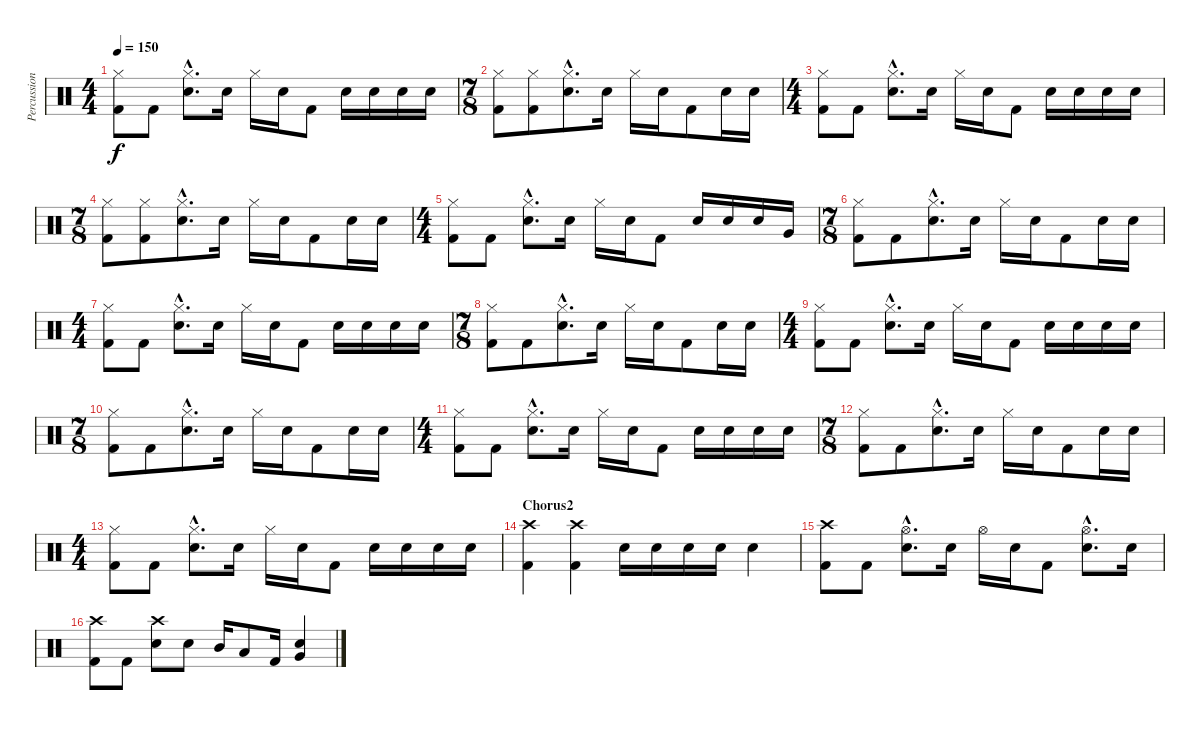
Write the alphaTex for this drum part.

\track ("Percussion" "Percussion") {instrument percussion}
\staff {score}
\articulation defaults
\ts (4 4)
\tempo 150
\clef neutral
\ks c
("Hi-Hat (closed)" "Kick (hit) 2").8{dy f} "Kick (hit) 2".8 ("Hi-Hat (closed)"{hac} "Electric Snare (hit)"{hac}).8{d} "Electric Snare (hit)".16 "Hi-Hat (closed)".16 "Electric Snare (hit)".16 "Kick (hit) 2".8 "Electric Snare (hit)".16 "Electric Snare (hit)".16 "Electric Snare (hit)".16 "Electric Snare (hit)".16 |
\ts (7 8)
("Hi-Hat (closed)" "Kick (hit) 2").8 ("Hi-Hat (closed)" "Kick (hit) 2").8 ("Hi-Hat (closed)"{hac} "Electric Snare (hit)"{hac}).8{d} "Electric Snare (hit)".16 "Hi-Hat (closed)".16 "Electric Snare (hit)".16 "Kick (hit) 2".8 "Electric Snare (hit)".16 "Electric Snare (hit)".16 |
\ts (4 4)
("Hi-Hat (closed)" "Kick (hit) 2").8 "Kick (hit) 2".8 ("Hi-Hat (closed)"{hac} "Electric Snare (hit)"{hac}).8{d} "Electric Snare (hit)".16 "Hi-Hat (closed)".16 "Electric Snare (hit)".16 "Kick (hit) 2".8 "Electric Snare (hit)".16 "Electric Snare (hit)".16 "Electric Snare (hit)".16 "Electric Snare (hit)".16 |
\ts (7 8)
("Hi-Hat (closed)" "Kick (hit) 2").8 ("Hi-Hat (closed)" "Kick (hit) 2").8 ("Hi-Hat (closed)"{hac} "Electric Snare (hit)"{hac}).8{d} "Electric Snare (hit)".16 "Hi-Hat (closed)".16 "Electric Snare (hit)".16 "Kick (hit) 2".8 "Electric Snare (hit)".16 "Electric Snare (hit)".16 |
\ts (4 4)
("Hi-Hat (closed)" "Kick (hit) 2").8 "Kick (hit) 2".8 ("Hi-Hat (closed)"{hac} "Electric Snare (hit)"{hac}).8{d} "Electric Snare (hit)".16 "Hi-Hat (closed)".16 "Electric Snare (hit)".16 "Kick (hit) 2".8 "Electric Snare (hit)".16 "Electric Snare (hit)".16 "Electric Snare (hit)".16 "Very Low Tom (hit)".16 |
\ts (7 8)
("Hi-Hat (closed)" "Kick (hit) 2").8 "Kick (hit) 2".8 ("Hi-Hat (closed)"{hac} "Electric Snare (hit)"{hac}).8{d} "Electric Snare (hit)".16 "Hi-Hat (closed)".16 "Electric Snare (hit)".16 "Kick (hit) 2".8 "Electric Snare (hit)".16 "Electric Snare (hit)".16 |
\ts (4 4)
("Hi-Hat (closed)" "Kick (hit) 2").8 "Kick (hit) 2".8 ("Hi-Hat (closed)"{hac} "Electric Snare (hit)"{hac}).8{d} "Electric Snare (hit)".16 "Hi-Hat (closed)".16 "Electric Snare (hit)".16 "Kick (hit) 2".8 "Electric Snare (hit)".16 "Electric Snare (hit)".16 "Electric Snare (hit)".16 "Electric Snare (hit)".16 |
\ts (7 8)
("Hi-Hat (closed)" "Kick (hit) 2").8 "Kick (hit) 2".8 ("Hi-Hat (closed)"{hac} "Electric Snare (hit)"{hac}).8{d} "Electric Snare (hit)".16 "Hi-Hat (closed)".16 "Electric Snare (hit)".16 "Kick (hit) 2".8 "Electric Snare (hit)".16 "Electric Snare (hit)".16 |
\ts (4 4)
("Hi-Hat (closed)" "Kick (hit) 2").8 "Kick (hit) 2".8 ("Hi-Hat (closed)"{hac} "Electric Snare (hit)"{hac}).8{d} "Electric Snare (hit)".16 "Hi-Hat (closed)".16 "Electric Snare (hit)".16 "Kick (hit) 2".8 "Electric Snare (hit)".16 "Electric Snare (hit)".16 "Electric Snare (hit)".16 "Electric Snare (hit)".16 |
\ts (7 8)
("Hi-Hat (closed)" "Kick (hit) 2").8 "Kick (hit) 2".8 ("Hi-Hat (closed)"{hac} "Electric Snare (hit)"{hac}).8{d} "Electric Snare (hit)".16 "Hi-Hat (closed)".16 "Electric Snare (hit)".16 "Kick (hit) 2".8 "Electric Snare (hit)".16 "Electric Snare (hit)".16 |
\ts (4 4)
("Hi-Hat (closed)" "Kick (hit) 2").8 "Kick (hit) 2".8 ("Hi-Hat (closed)"{hac} "Electric Snare (hit)"{hac}).8{d} "Electric Snare (hit)".16 "Hi-Hat (closed)".16 "Electric Snare (hit)".16 "Kick (hit) 2".8 "Electric Snare (hit)".16 "Electric Snare (hit)".16 "Electric Snare (hit)".16 "Electric Snare (hit)".16 |
\ts (7 8)
("Hi-Hat (closed)" "Kick (hit) 2").8 "Kick (hit) 2".8 ("Hi-Hat (closed)"{hac} "Electric Snare (hit)"{hac}).8{d} "Electric Snare (hit)".16 "Hi-Hat (closed)".16 "Electric Snare (hit)".16 "Kick (hit) 2".8 "Electric Snare (hit)".16 "Electric Snare (hit)".16 |
\ts (4 4)
("Hi-Hat (closed)" "Kick (hit) 2").8 "Kick (hit) 2".8 ("Hi-Hat (closed)"{hac} "Electric Snare (hit)"{hac}).8{d} "Electric Snare (hit)".16 "Hi-Hat (closed)".16 "Electric Snare (hit)".16 "Kick (hit) 2".8 "Electric Snare (hit)".16 "Electric Snare (hit)".16 "Electric Snare (hit)".16 "Electric Snare (hit)".16 |
\section ("" "Chorus2")
("Crash high (hit)" "Kick (hit) 2").4 ("Crash high (hit)" "Kick (hit) 2").4 "Electric Snare (hit)".16 "Electric Snare (hit)".16 "Electric Snare (hit)".16 "Electric Snare (hit)".16 "Electric Snare (hit)".4 |
("Crash high (hit)" "Kick (hit) 2").8 "Kick (hit) 2".8 ("Hi-Hat (open)"{hac} "Electric Snare (hit)"{hac}).8{d} "Electric Snare (hit)".16 "Hi-Hat (open)".16 "Electric Snare (hit)".16 "Kick (hit) 2".8 ("Hi-Hat (open)"{hac} "Electric Snare (hit)"{hac}).8{d} "Electric Snare (hit)".16 |
("Crash high (hit)" "Kick (hit) 2").8 "Kick (hit) 2".8 ("Crash high (hit)" "Electric Snare (hit)").8 "Electric Snare (hit)".8 "Mid Tom (hit)".16 "Low Tom (hit)".8 "Kick (hit) 2".16 ("Very Low Tom (hit)" "Electric Snare (hit)").4
